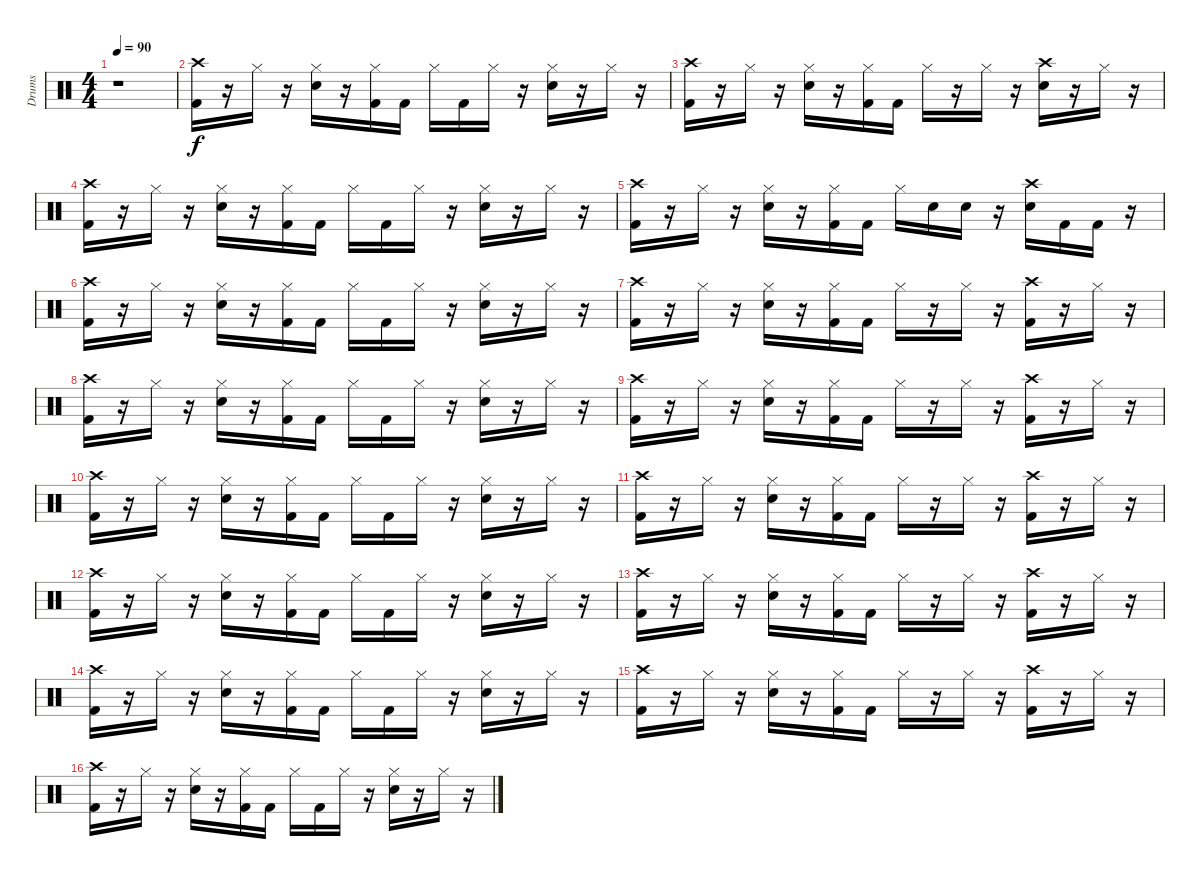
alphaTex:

\track ("Drums" "Drums") {instrument percussion}
\staff {score}
\articulation defaults
\ts (4 4)
\tempo 90
\clef neutral
\ks c
r.1{dy f} |
("Crash high (hit)" "Kick (hit) 2").16 r.16 "Hi-Hat (closed)".16 r.16 ("Hi-Hat (closed)" "Electric Snare (hit)").16 r.16 ("Hi-Hat (closed)" "Kick (hit) 2").16 "Kick (hit) 2".16 "Hi-Hat (closed)".16 "Kick (hit) 2".16 "Hi-Hat (closed)".16 r.16 ("Hi-Hat (closed)" "Electric Snare (hit)").16 r.16 "Hi-Hat (closed)".16 r.16 |
("Kick (hit) 2" "Crash high (hit)").16 r.16 "Hi-Hat (closed)".16 r.16 ("Hi-Hat (closed)" "Electric Snare (hit)").16 r.16 ("Hi-Hat (closed)" "Kick (hit) 2").16 "Kick (hit) 2".16 "Hi-Hat (closed)".16 r.16 "Hi-Hat (closed)".16 r.16 ("Crash high (hit)" "Electric Snare (hit)").16 r.16 "Hi-Hat (closed)".16 r.16 |
("Kick (hit) 2" "Crash high (hit)").16 r.16 "Hi-Hat (closed)".16 r.16 ("Hi-Hat (closed)" "Electric Snare (hit)").16 r.16 ("Hi-Hat (closed)" "Kick (hit) 2").16 "Kick (hit) 2".16 "Hi-Hat (closed)".16 "Kick (hit) 2".16 "Hi-Hat (closed)".16 r.16 ("Hi-Hat (closed)" "Electric Snare (hit)").16 r.16 "Hi-Hat (closed)".16 r.16 |
("Crash high (hit)" "Kick (hit) 2").16 r.16 "Hi-Hat (closed)".16 r.16 ("Hi-Hat (closed)" "Electric Snare (hit)").16 r.16 ("Hi-Hat (closed)" "Kick (hit) 2").16 "Kick (hit) 2".16 "Hi-Hat (closed)".16 "Electric Snare (hit)".16 "Electric Snare (hit)".16 r.16 ("Electric Snare (hit)" "Crash high (hit)").16 "Kick (hit) 2".16 "Kick (hit) 2".16 r.16 |
("Kick (hit) 2" "Crash high (hit)").16 r.16 "Hi-Hat (closed)".16 r.16 ("Electric Snare (hit)" "Hi-Hat (closed)").16 r.16 ("Kick (hit) 2" "Hi-Hat (closed)").16 "Kick (hit) 2".16 "Hi-Hat (closed)".16 "Kick (hit) 2".16 "Hi-Hat (closed)".16 r.16 ("Electric Snare (hit)" "Hi-Hat (closed)").16 r.16 "Hi-Hat (closed)".16 r.16 |
("Crash high (hit)" "Kick (hit) 2").16 r.16 "Hi-Hat (closed)".16 r.16 ("Electric Snare (hit)" "Hi-Hat (closed)").16 r.16 ("Kick (hit) 2" "Hi-Hat (closed)").16 "Kick (hit) 2".16 "Hi-Hat (closed)".16 r.16 "Hi-Hat (closed)".16 r.16 ("Kick (hit) 2" "Crash high (hit)").16 r.16 "Hi-Hat (closed)".16 r.16 |
("Crash high (hit)" "Kick (hit) 2").16 r.16 "Hi-Hat (closed)".16 r.16 ("Hi-Hat (closed)" "Electric Snare (hit)").16 r.16 ("Hi-Hat (closed)" "Kick (hit) 2").16 "Kick (hit) 2".16 "Hi-Hat (closed)".16 "Kick (hit) 2".16 "Hi-Hat (closed)".16 r.16 ("Hi-Hat (closed)" "Electric Snare (hit)").16 r.16 "Hi-Hat (closed)".16 r.16 |
("Kick (hit) 2" "Crash high (hit)").16 r.16 "Hi-Hat (closed)".16 r.16 ("Hi-Hat (closed)" "Electric Snare (hit)").16 r.16 ("Hi-Hat (closed)" "Kick (hit) 2").16 "Kick (hit) 2".16 "Hi-Hat (closed)".16 r.16 "Hi-Hat (closed)".16 r.16 ("Crash high (hit)" "Kick (hit) 2").16 r.16 "Hi-Hat (closed)".16 r.16 |
("Crash high (hit)" "Kick (hit) 2").16 r.16 "Hi-Hat (closed)".16 r.16 ("Hi-Hat (closed)" "Electric Snare (hit)").16 r.16 ("Hi-Hat (closed)" "Kick (hit) 2").16 "Kick (hit) 2".16 "Hi-Hat (closed)".16 "Kick (hit) 2".16 "Hi-Hat (closed)".16 r.16 ("Hi-Hat (closed)" "Electric Snare (hit)").16 r.16 "Hi-Hat (closed)".16 r.16 |
("Kick (hit) 2" "Crash high (hit)").16 r.16 "Hi-Hat (closed)".16 r.16 ("Hi-Hat (closed)" "Electric Snare (hit)").16 r.16 ("Hi-Hat (closed)" "Kick (hit) 2").16 "Kick (hit) 2".16 "Hi-Hat (closed)".16 r.16 "Hi-Hat (closed)".16 r.16 ("Crash high (hit)" "Kick (hit) 2").16 r.16 "Hi-Hat (closed)".16 r.16 |
("Kick (hit) 2" "Crash high (hit)").16 r.16 "Hi-Hat (closed)".16 r.16 ("Electric Snare (hit)" "Hi-Hat (closed)").16 r.16 ("Kick (hit) 2" "Hi-Hat (closed)").16 "Kick (hit) 2".16 "Hi-Hat (closed)".16 "Kick (hit) 2".16 "Hi-Hat (closed)".16 r.16 ("Electric Snare (hit)" "Hi-Hat (closed)").16 r.16 "Hi-Hat (closed)".16 r.16 |
("Crash high (hit)" "Kick (hit) 2").16 r.16 "Hi-Hat (closed)".16 r.16 ("Electric Snare (hit)" "Hi-Hat (closed)").16 r.16 ("Kick (hit) 2" "Hi-Hat (closed)").16 "Kick (hit) 2".16 "Hi-Hat (closed)".16 r.16 "Hi-Hat (closed)".16 r.16 ("Kick (hit) 2" "Crash high (hit)").16 r.16 "Hi-Hat (closed)".16 r.16 |
("Crash high (hit)" "Kick (hit) 2").16 r.16 "Hi-Hat (closed)".16 r.16 ("Hi-Hat (closed)" "Electric Snare (hit)").16 r.16 ("Hi-Hat (closed)" "Kick (hit) 2").16 "Kick (hit) 2".16 "Hi-Hat (closed)".16 "Kick (hit) 2".16 "Hi-Hat (closed)".16 r.16 ("Hi-Hat (closed)" "Electric Snare (hit)").16 r.16 "Hi-Hat (closed)".16 r.16 |
("Kick (hit) 2" "Crash high (hit)").16 r.16 "Hi-Hat (closed)".16 r.16 ("Hi-Hat (closed)" "Electric Snare (hit)").16 r.16 ("Hi-Hat (closed)" "Kick (hit) 2").16 "Kick (hit) 2".16 "Hi-Hat (closed)".16 r.16 "Hi-Hat (closed)".16 r.16 ("Crash high (hit)" "Kick (hit) 2").16 r.16 "Hi-Hat (closed)".16 r.16 |
("Kick (hit) 2" "Crash high (hit)").16 r.16 "Hi-Hat (closed)".16 r.16 ("Electric Snare (hit)" "Hi-Hat (closed)").16 r.16 ("Kick (hit) 2" "Hi-Hat (closed)").16 "Kick (hit) 2".16 "Hi-Hat (closed)".16 "Kick (hit) 2".16 "Hi-Hat (closed)".16 r.16 ("Electric Snare (hit)" "Hi-Hat (closed)").16 r.16 "Hi-Hat (closed)".16 r.16
